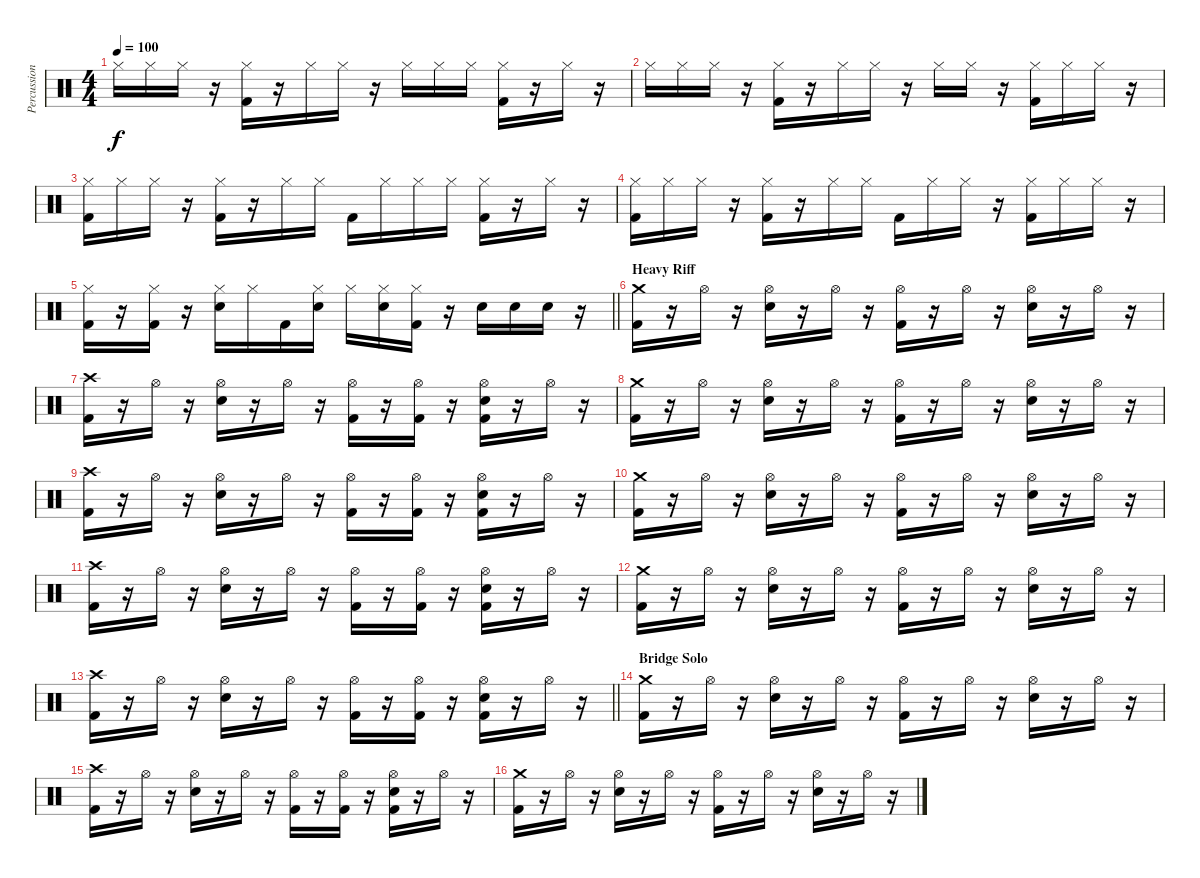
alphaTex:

\track ("Percussion" "Percussion") {instrument percussion}
\staff {score}
\articulation defaults
\ts (4 4)
\tempo 100
\clef neutral
\ks c "Hi-Hat (closed)".16{dy f} "Hi-Hat (closed)".16 "Hi-Hat (closed)".16
r.16 ("Hi-Hat (closed)" "Kick (hit) 2").16 r.16 "Hi-Hat (closed)".16 "Hi-Hat (closed)".16 r.16 "Hi-Hat (closed)".16 "Hi-Hat (closed)".16 "Hi-Hat (closed)".16 ("Hi-Hat (closed)" "Kick (hit) 2").16 r.16 "Hi-Hat (closed)".16 r.16 |
"Hi-Hat (closed)".16 "Hi-Hat (closed)".16 "Hi-Hat (closed)".16 r.16 ("Hi-Hat (closed)" "Kick (hit) 2").16 r.16 "Hi-Hat (closed)".16 "Hi-Hat (closed)".16 r.16 "Hi-Hat (closed)".16 "Hi-Hat (closed)".16 r.16 ("Hi-Hat (closed)" "Kick (hit) 2").16 "Hi-Hat (closed)".16 "Hi-Hat (closed)".16 r.16 |
("Hi-Hat (closed)" "Kick (hit) 2").16 "Hi-Hat (closed)".16 "Hi-Hat (closed)".16 r.16 ("Hi-Hat (closed)" "Kick (hit) 2").16 r.16 "Hi-Hat (closed)".16 "Hi-Hat (closed)".16 "Kick (hit) 2".16 "Hi-Hat (closed)".16 "Hi-Hat (closed)".16 "Hi-Hat (closed)".16 ("Hi-Hat (closed)" "Kick (hit) 2").16 r.16 "Hi-Hat (closed)".16 r.16 |
("Hi-Hat (closed)" "Kick (hit) 2").16 "Hi-Hat (closed)".16 "Hi-Hat (closed)".16 r.16 ("Hi-Hat (closed)" "Kick (hit) 2").16 r.16 "Hi-Hat (closed)".16 "Hi-Hat (closed)".16 "Kick (hit) 2".16 "Hi-Hat (closed)".16 "Hi-Hat (closed)".16 r.16 ("Hi-Hat (closed)" "Kick (hit) 2").16 "Hi-Hat (closed)".16 "Hi-Hat (closed)".16 r.16 |
\barLineRight lightlight
("Hi-Hat (closed)" "Kick (hit) 2").16{volume 12} r.16 ("Hi-Hat (closed)" "Kick (hit) 2").16 r.16 ("Hi-Hat (closed)" "Electric Snare (hit)").16 "Hi-Hat (closed)".16 "Kick (hit) 2".16 ("Hi-Hat (closed)" "Electric Snare (hit)").16 "Hi-Hat (closed)".16 ("Hi-Hat (closed)" "Electric Snare (hit)").16 ("Hi-Hat (closed)" "Kick (hit) 2").16 r.16 "Electric Snare (hit)".16 "Electric Snare (hit)".16 "Electric Snare (hit)".16 r.16 |
\section ("" "Heavy Riff")
("Crash medium (hit)" "Kick (hit) 2").16 r.16 "Hi-Hat (open)".16 r.16 ("Hi-Hat (open)" "Electric Snare (hit)").16 r.16 "Hi-Hat (open)".16 r.16 ("Hi-Hat (open)" "Kick (hit) 2").16 r.16 "Hi-Hat (open)".16 r.16 ("Hi-Hat (open)" "Electric Snare (hit)").16 r.16 "Hi-Hat (open)".16 r.16 |
("Crash high (hit)" "Kick (hit) 2").16 r.16 "Hi-Hat (open)".16 r.16 ("Hi-Hat (open)" "Electric Snare (hit)").16 r.16 "Hi-Hat (open)".16 r.16 ("Hi-Hat (open)" "Kick (hit) 2").16 r.16 ("Hi-Hat (open)" "Kick (hit) 2").16 r.16 ("Hi-Hat (open)" "Electric Snare (hit)" "Kick (hit) 2").16 r.16 "Hi-Hat (open)".16 r.16 |
("Crash medium (hit)" "Kick (hit) 2").16 r.16 "Hi-Hat (open)".16 r.16 ("Hi-Hat (open)" "Electric Snare (hit)").16 r.16 "Hi-Hat (open)".16 r.16 ("Hi-Hat (open)" "Kick (hit) 2").16 r.16 "Hi-Hat (open)".16 r.16 ("Hi-Hat (open)" "Electric Snare (hit)").16 r.16 "Hi-Hat (open)".16 r.16 |
("Crash high (hit)" "Kick (hit) 2").16 r.16 "Hi-Hat (open)".16 r.16 ("Hi-Hat (open)" "Electric Snare (hit)").16 r.16 "Hi-Hat (open)".16 r.16 ("Hi-Hat (open)" "Kick (hit) 2").16 r.16 ("Hi-Hat (open)" "Kick (hit) 2").16 r.16 ("Hi-Hat (open)" "Electric Snare (hit)" "Kick (hit) 2").16 r.16 "Hi-Hat (open)".16 r.16 |
("Crash medium (hit)" "Kick (hit) 2").16 r.16 "Hi-Hat (open)".16 r.16 ("Hi-Hat (open)" "Electric Snare (hit)").16 r.16 "Hi-Hat (open)".16 r.16 ("Hi-Hat (open)" "Kick (hit) 2").16 r.16 "Hi-Hat (open)".16 r.16 ("Hi-Hat (open)" "Electric Snare (hit)").16 r.16 "Hi-Hat (open)".16 r.16 |
("Crash high (hit)" "Kick (hit) 2").16 r.16 "Hi-Hat (open)".16 r.16 ("Hi-Hat (open)" "Electric Snare (hit)").16 r.16 "Hi-Hat (open)".16 r.16 ("Hi-Hat (open)" "Kick (hit) 2").16 r.16 ("Hi-Hat (open)" "Kick (hit) 2").16 r.16 ("Hi-Hat (open)" "Electric Snare (hit)" "Kick (hit) 2").16 r.16 "Hi-Hat (open)".16 r.16 |
("Crash medium (hit)" "Kick (hit) 2").16 r.16 "Hi-Hat (open)".16 r.16 ("Hi-Hat (open)" "Electric Snare (hit)").16 r.16 "Hi-Hat (open)".16 r.16 ("Hi-Hat (open)" "Kick (hit) 2").16 r.16 "Hi-Hat (open)".16 r.16 ("Hi-Hat (open)" "Electric Snare (hit)").16 r.16 "Hi-Hat (open)".16 r.16 |
\barLineRight lightlight
("Crash high (hit)" "Kick (hit) 2").16 r.16 "Hi-Hat (open)".16 r.16 ("Hi-Hat (open)" "Electric Snare (hit)").16 r.16 "Hi-Hat (open)".16 r.16 ("Hi-Hat (open)" "Kick (hit) 2").16 r.16 ("Hi-Hat (open)" "Kick (hit) 2").16 r.16 ("Hi-Hat (open)" "Electric Snare (hit)" "Kick (hit) 2").16 r.16 "Hi-Hat (open)".16 r.16 |
\section ("" "Bridge Solo")
("Crash medium (hit)" "Kick (hit) 2").16 r.16 "Hi-Hat (open)".16 r.16 ("Hi-Hat (open)" "Electric Snare (hit)").16 r.16 "Hi-Hat (open)".16 r.16 ("Hi-Hat (open)" "Kick (hit) 2").16 r.16 "Hi-Hat (open)".16 r.16 ("Hi-Hat (open)" "Electric Snare (hit)").16 r.16 "Hi-Hat (open)".16 r.16 |
("Crash high (hit)" "Kick (hit) 2").16 r.16 "Hi-Hat (open)".16 r.16 ("Hi-Hat (open)" "Electric Snare (hit)").16 r.16 "Hi-Hat (open)".16 r.16 ("Hi-Hat (open)" "Kick (hit) 2").16 r.16 ("Hi-Hat (open)" "Kick (hit) 2").16 r.16 ("Hi-Hat (open)" "Electric Snare (hit)" "Kick (hit) 2").16 r.16 "Hi-Hat (open)".16 r.16 |
("Crash medium (hit)" "Kick (hit) 2").16 r.16 "Hi-Hat (open)".16 r.16 ("Hi-Hat (open)" "Electric Snare (hit)").16 r.16 "Hi-Hat (open)".16 r.16 ("Hi-Hat (open)" "Kick (hit) 2").16 r.16 "Hi-Hat (open)".16 r.16 ("Hi-Hat (open)" "Electric Snare (hit)").16 r.16 "Hi-Hat (open)".16 r.16
